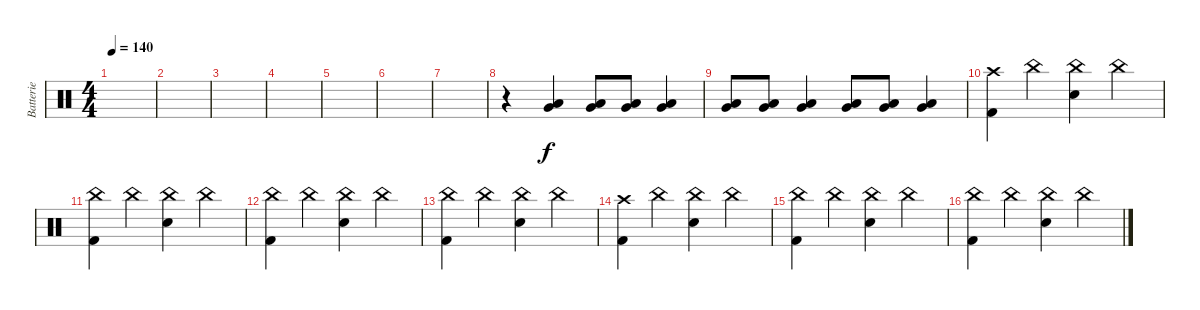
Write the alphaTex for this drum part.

\track ("Batterie" "Batterie") {instrument percussion}
\staff {score}
\articulation defaults
\ts (4 4)
\tempo 140
\clef neutral
\ks c
|
|
|
|
|
|
|
r.4 ("Low Tom (hit)" "Very Low Tom (hit)").4{bu 60} ("Very Low Tom (hit)" "Low Floor Tom (hit)").8{bu 60} ("Very Low Tom (hit)" "Low Floor Tom (hit)").8{bu 60} ("Very Low Tom (hit)" "Low Floor Tom (hit)").4{bu 60} |
("Low Tom (hit)" "Very Low Tom (hit)").8{bu 60} ("Low Tom (hit)" "Very Low Tom (hit)").8{bu 60} ("Low Tom (hit)" "Very Low Tom (hit)").4{bu 60} ("Low Tom (hit)" "Very Low Tom (hit)").8{bu 60} ("Low Tom (hit)" "Very Low Tom (hit)").8{bu 60} ("Low Tom (hit)" "Very Low Tom (hit)").4{bu 60} |
("Crash high (hit)" "Kick (hit) 2").4 "China (hit)".4 ("China (hit)" "Electric Snare (hit)").4 "China (hit)".4 |
("China (hit)" "Kick (hit) 2").4 "China (hit)".4 ("China (hit)" "Electric Snare (hit)").4 "China (hit)".4 |
("China (hit)" "Kick (hit) 2").4 "China (hit)".4 ("China (hit)" "Electric Snare (hit)").4 "China (hit)".4 |
("China (hit)" "Kick (hit) 2").4 "China (hit)".4 ("China (hit)" "Electric Snare (hit)").4 "China (hit)".4 |
("Crash high (hit)" "Kick (hit) 2").4 "China (hit)".4 ("China (hit)" "Electric Snare (hit)").4 "China (hit)".4 |
("China (hit)" "Kick (hit) 2").4 "China (hit)".4 ("China (hit)" "Electric Snare (hit)").4 "China (hit)".4 |
("China (hit)" "Kick (hit) 2").4 "China (hit)".4 ("China (hit)" "Electric Snare (hit)").4 "China (hit)".4
